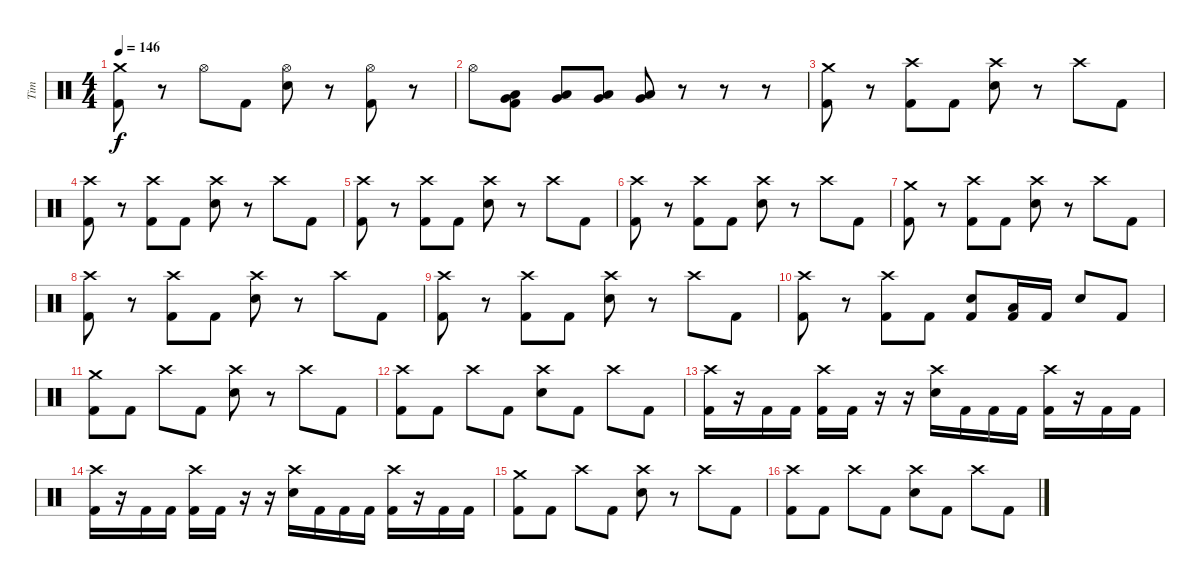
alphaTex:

\track ("Tim" "Tim") {instrument percussion}
\staff {score}
\articulation defaults
\ts (4 4)
\tempo 146
\clef neutral
\ks c
("Crash medium (hit)" "Kick (hit) 2").8{dy f} r.8 "Hi-Hat (open)".8 "Kick (hit) 2".8 ("Hi-Hat (open)" "Electric Snare (hit)").8 r.8 ("Hi-Hat (open)" "Kick (hit) 2").8 r.8 |
"Hi-Hat (open)".8 ("Low Tom (hit)" "Very Low Tom (hit)" "Kick (hit) 2").8 ("Low Tom (hit)" "Very Low Tom (hit)").8 ("Low Tom (hit)" "Very Low Tom (hit)").8 ("Low Tom (hit)" "Very Low Tom (hit)").8 r.8 r.8 r.8 |
("Crash medium (hit)" "Kick (hit) 2").8 r.8 ("Crash high (hit)" "Kick (hit) 2").8 "Kick (hit) 2".8 ("Crash high (hit)" "Electric Snare (hit)").8 r.8 "Crash high (hit)".8 "Kick (hit) 2".8 |
("Crash high (hit)" "Kick (hit) 2").8 r.8 ("Crash high (hit)" "Kick (hit) 2").8 "Kick (hit) 2".8 ("Crash high (hit)" "Electric Snare (hit)").8 r.8 "Crash high (hit)".8 "Kick (hit) 2".8 |
("Crash high (hit)" "Kick (hit) 2").8 r.8 ("Crash high (hit)" "Kick (hit) 2").8 "Kick (hit) 2".8 ("Crash high (hit)" "Electric Snare (hit)").8 r.8 "Crash high (hit)".8 "Kick (hit) 2".8 |
("Crash high (hit)" "Kick (hit) 2").8 r.8 ("Crash high (hit)" "Kick (hit) 2").8 "Kick (hit) 2".8 ("Crash high (hit)" "Electric Snare (hit)").8 r.8 "Crash high (hit)".8 "Kick (hit) 2".8 |
("Crash medium (hit)" "Kick (hit) 2").8 r.8 ("Crash high (hit)" "Kick (hit) 2").8 "Kick (hit) 2".8 ("Crash high (hit)" "Electric Snare (hit)").8 r.8 "Crash high (hit)".8 "Kick (hit) 2".8 |
("Crash high (hit)" "Kick (hit) 2").8 r.8 ("Crash high (hit)" "Kick (hit) 2").8 "Kick (hit) 2".8 ("Crash high (hit)" "Electric Snare (hit)").8 r.8 "Crash high (hit)".8 "Kick (hit) 2".8 |
("Crash high (hit)" "Kick (hit) 2").8 r.8 ("Crash high (hit)" "Kick (hit) 2").8 "Kick (hit) 2".8 ("Crash high (hit)" "Electric Snare (hit)").8 r.8 "Crash high (hit)".8 "Kick (hit) 2".8 |
("Crash high (hit)" "Kick (hit) 2").8 r.8 ("Crash high (hit)" "Kick (hit) 2").8 "Kick (hit) 2".8 ("Electric Snare (hit)" "Kick (hit) 2").8 ("Low Tom (hit)" "Kick (hit) 2").16 "Kick (hit) 2".16 "Electric Snare (hit)".8 "Kick (hit) 2".8 |
("Crash medium (hit)" "Kick (hit) 2").8 "Kick (hit) 2".8 "Crash high (hit)".8 "Kick (hit) 2".8 ("Crash high (hit)" "Electric Snare (hit)").8 r.8 "Crash high (hit)".8 "Kick (hit) 2".8 |
("Crash high (hit)" "Kick (hit) 2").8 "Kick (hit) 2".8 "Crash high (hit)".8 "Kick (hit) 2".8 ("Crash high (hit)" "Electric Snare (hit)").8 "Kick (hit) 2".8 "Crash high (hit)".8 "Kick (hit) 2".8 |
("Crash high (hit)" "Kick (hit) 2").16 r.16 "Kick (hit) 2".16 "Kick (hit) 2".16 ("Crash high (hit)" "Kick (hit) 2").16 "Kick (hit) 2".16 r.16 r.16 ("Crash high (hit)" "Electric Snare (hit)").16 "Kick (hit) 2".16 "Kick (hit) 2".16 "Kick (hit) 2".16 ("Crash high (hit)" "Kick (hit) 2").16 r.16 "Kick (hit) 2".16 "Kick (hit) 2".16 |
("Crash high (hit)" "Kick (hit) 2").16 r.16 "Kick (hit) 2".16 "Kick (hit) 2".16 ("Crash high (hit)" "Kick (hit) 2").16 "Kick (hit) 2".16 r.16 r.16 ("Crash high (hit)" "Electric Snare (hit)").16 "Kick (hit) 2".16 "Kick (hit) 2".16 "Kick (hit) 2".16 ("Crash high (hit)" "Kick (hit) 2").16 r.16 "Kick (hit) 2".16 "Kick (hit) 2".16 |
("Crash medium (hit)" "Kick (hit) 2").8 "Kick (hit) 2".8 "Crash high (hit)".8 "Kick (hit) 2".8 ("Crash high (hit)" "Electric Snare (hit)").8 r.8 "Crash high (hit)".8 "Kick (hit) 2".8 |
("Crash high (hit)" "Kick (hit) 2").8 "Kick (hit) 2".8 "Crash high (hit)".8 "Kick (hit) 2".8 ("Crash high (hit)" "Electric Snare (hit)").8 "Kick (hit) 2".8 "Crash high (hit)".8 "Kick (hit) 2".8
